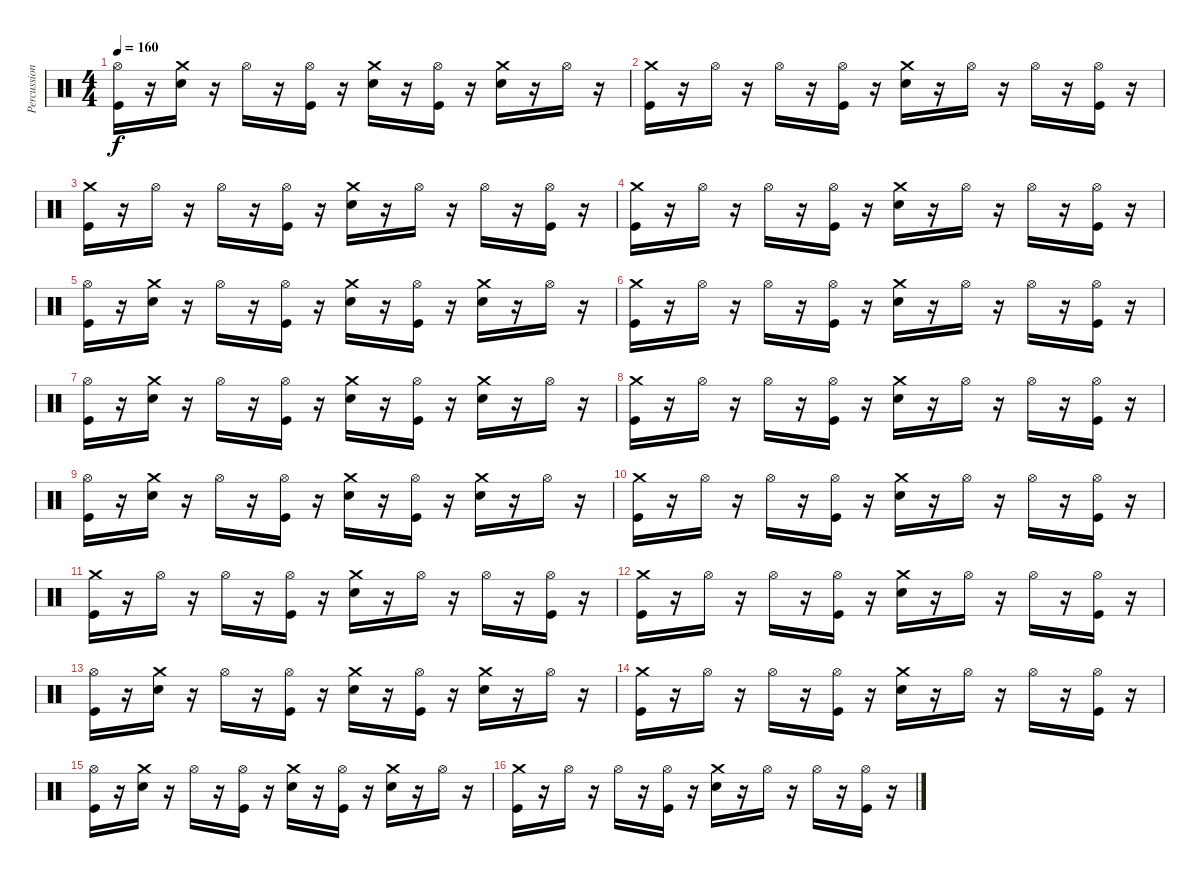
\track ("Percussion" "Percussion") {instrument percussion}
\staff {score}
\articulation defaults
\ts (4 4)
\tempo 160
\clef neutral
\ks c
("Hi-Hat (open)" "Kick (hit)").16{dy f} r.16 ("Crash medium (hit)" "Snare (hit) 2").16 r.16 "Hi-Hat (open)".16 r.16 ("Hi-Hat (open)" "Kick (hit)").16 r.16 ("Crash medium (hit)" "Snare (hit) 2").16 r.16 ("Hi-Hat (open)" "Kick (hit)").16 r.16 ("Crash medium (hit)" "Snare (hit) 2").16 r.16 "Hi-Hat (open)".16 r.16 |
("Crash medium (hit)" "Kick (hit)").16 r.16 "Hi-Hat (open)".16 r.16 "Hi-Hat (open)".16 r.16 ("Hi-Hat (open)" "Kick (hit)").16 r.16 ("Crash medium (hit)" "Snare (hit) 2").16 r.16 "Hi-Hat (open)".16 r.16 "Hi-Hat (open)".16 r.16 ("Hi-Hat (open)" "Kick (hit)").16 r.16 |
("Crash medium (hit)" "Kick (hit)").16 r.16 "Hi-Hat (open)".16 r.16 "Hi-Hat (open)".16 r.16 ("Hi-Hat (open)" "Kick (hit)").16 r.16 ("Crash medium (hit)" "Snare (hit) 2").16 r.16 "Hi-Hat (open)".16 r.16 "Hi-Hat (open)".16 r.16 ("Hi-Hat (open)" "Kick (hit)").16 r.16 |
("Crash medium (hit)" "Kick (hit)").16 r.16 "Hi-Hat (open)".16 r.16 "Hi-Hat (open)".16 r.16 ("Hi-Hat (open)" "Kick (hit)").16 r.16 ("Crash medium (hit)" "Snare (hit) 2").16 r.16 "Hi-Hat (open)".16 r.16 "Hi-Hat (open)".16 r.16 ("Hi-Hat (open)" "Kick (hit)").16 r.16 |
("Hi-Hat (open)" "Kick (hit)").16 r.16 ("Crash medium (hit)" "Snare (hit) 2").16 r.16 "Hi-Hat (open)".16 r.16 ("Hi-Hat (open)" "Kick (hit)").16 r.16 ("Crash medium (hit)" "Snare (hit) 2").16 r.16 ("Hi-Hat (open)" "Kick (hit)").16 r.16 ("Crash medium (hit)" "Snare (hit) 2").16 r.16 "Hi-Hat (open)".16 r.16 |
("Crash medium (hit)" "Kick (hit)").16 r.16 "Hi-Hat (open)".16 r.16 "Hi-Hat (open)".16 r.16 ("Hi-Hat (open)" "Kick (hit)").16 r.16 ("Crash medium (hit)" "Snare (hit) 2").16 r.16 "Hi-Hat (open)".16 r.16 "Hi-Hat (open)".16 r.16 ("Hi-Hat (open)" "Kick (hit)").16 r.16 |
("Hi-Hat (open)" "Kick (hit)").16 r.16 ("Crash medium (hit)" "Snare (hit) 2").16 r.16 "Hi-Hat (open)".16 r.16 ("Hi-Hat (open)" "Kick (hit)").16 r.16 ("Crash medium (hit)" "Snare (hit) 2").16 r.16 ("Hi-Hat (open)" "Kick (hit)").16 r.16 ("Crash medium (hit)" "Snare (hit) 2").16 r.16 "Hi-Hat (open)".16 r.16 |
("Crash medium (hit)" "Kick (hit)").16 r.16 "Hi-Hat (open)".16 r.16 "Hi-Hat (open)".16 r.16 ("Hi-Hat (open)" "Kick (hit)").16 r.16 ("Crash medium (hit)" "Snare (hit) 2").16 r.16 "Hi-Hat (open)".16 r.16 "Hi-Hat (open)".16 r.16 ("Hi-Hat (open)" "Kick (hit)").16 r.16 |
("Hi-Hat (open)" "Kick (hit)").16 r.16 ("Crash medium (hit)" "Snare (hit) 2").16 r.16 "Hi-Hat (open)".16 r.16 ("Hi-Hat (open)" "Kick (hit)").16 r.16 ("Crash medium (hit)" "Snare (hit) 2").16 r.16 ("Hi-Hat (open)" "Kick (hit)").16 r.16 ("Crash medium (hit)" "Snare (hit) 2").16 r.16 "Hi-Hat (open)".16 r.16 |
("Crash medium (hit)" "Kick (hit)").16 r.16 "Hi-Hat (open)".16 r.16 "Hi-Hat (open)".16 r.16 ("Hi-Hat (open)" "Kick (hit)").16 r.16 ("Crash medium (hit)" "Snare (hit) 2").16 r.16 "Hi-Hat (open)".16 r.16 "Hi-Hat (open)".16 r.16 ("Hi-Hat (open)" "Kick (hit)").16 r.16 |
("Crash medium (hit)" "Kick (hit)").16 r.16 "Hi-Hat (open)".16 r.16 "Hi-Hat (open)".16 r.16 ("Hi-Hat (open)" "Kick (hit)").16 r.16 ("Crash medium (hit)" "Snare (hit) 2").16 r.16 "Hi-Hat (open)".16 r.16 "Hi-Hat (open)".16 r.16 ("Hi-Hat (open)" "Kick (hit)").16 r.16 |
("Crash medium (hit)" "Kick (hit)").16 r.16 "Hi-Hat (open)".16 r.16 "Hi-Hat (open)".16 r.16 ("Hi-Hat (open)" "Kick (hit)").16 r.16 ("Crash medium (hit)" "Snare (hit) 2").16 r.16 "Hi-Hat (open)".16 r.16 "Hi-Hat (open)".16 r.16 ("Hi-Hat (open)" "Kick (hit)").16 r.16 |
("Hi-Hat (open)" "Kick (hit)").16 r.16 ("Crash medium (hit)" "Snare (hit) 2").16 r.16 "Hi-Hat (open)".16 r.16 ("Hi-Hat (open)" "Kick (hit)").16 r.16 ("Crash medium (hit)" "Snare (hit) 2").16 r.16 ("Hi-Hat (open)" "Kick (hit)").16 r.16 ("Crash medium (hit)" "Snare (hit) 2").16 r.16 "Hi-Hat (open)".16 r.16 |
("Crash medium (hit)" "Kick (hit)").16 r.16 "Hi-Hat (open)".16 r.16 "Hi-Hat (open)".16 r.16 ("Hi-Hat (open)" "Kick (hit)").16 r.16 ("Crash medium (hit)" "Snare (hit) 2").16 r.16 "Hi-Hat (open)".16 r.16 "Hi-Hat (open)".16 r.16 ("Hi-Hat (open)" "Kick (hit)").16 r.16 |
("Hi-Hat (open)" "Kick (hit)").16 r.16 ("Crash medium (hit)" "Snare (hit) 2").16 r.16 "Hi-Hat (open)".16 r.16 ("Hi-Hat (open)" "Kick (hit)").16 r.16 ("Crash medium (hit)" "Snare (hit) 2").16 r.16 ("Hi-Hat (open)" "Kick (hit)").16 r.16 ("Crash medium (hit)" "Snare (hit) 2").16 r.16 "Hi-Hat (open)".16 r.16 |
("Crash medium (hit)" "Kick (hit)").16 r.16 "Hi-Hat (open)".16 r.16 "Hi-Hat (open)".16 r.16 ("Hi-Hat (open)" "Kick (hit)").16 r.16 ("Crash medium (hit)" "Snare (hit) 2").16 r.16 "Hi-Hat (open)".16 r.16 "Hi-Hat (open)".16 r.16 ("Hi-Hat (open)" "Kick (hit)").16 r.16
